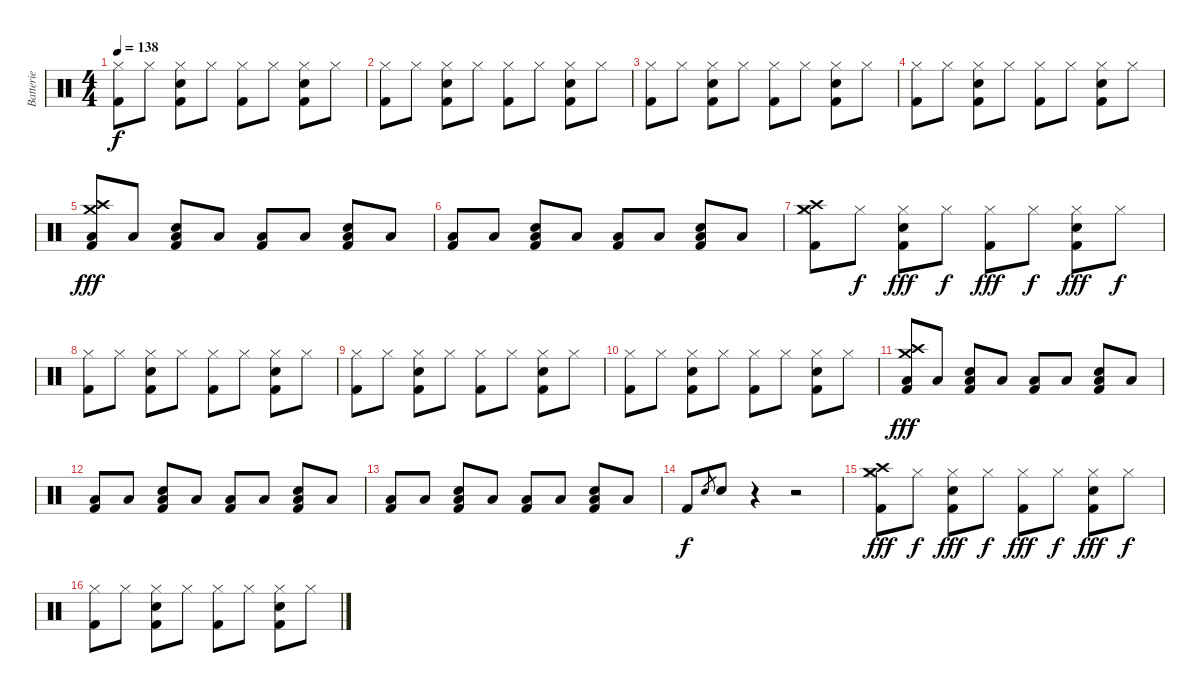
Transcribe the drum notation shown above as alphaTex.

\track ("Batterie" "Batterie") {instrument percussion}
\staff {score}
\articulation defaults
\ts (4 4)
\tempo 138
\clef neutral
\ks c
("Hi-Hat (closed)" "Kick (hit) 2").8{dy f} "Hi-Hat (closed)".8 ("Hi-Hat (closed)" "Electric Snare (hit)" "Kick (hit) 2").8 "Hi-Hat (closed)".8 ("Hi-Hat (closed)" "Kick (hit) 2").8 "Hi-Hat (closed)".8 ("Hi-Hat (closed)" "Electric Snare (hit)" "Kick (hit) 2").8 "Hi-Hat (closed)".8 |
("Hi-Hat (closed)" "Kick (hit) 2").8 "Hi-Hat (closed)".8 ("Hi-Hat (closed)" "Electric Snare (hit)" "Kick (hit) 2").8 "Hi-Hat (closed)".8 ("Hi-Hat (closed)" "Kick (hit) 2").8 "Hi-Hat (closed)".8 ("Hi-Hat (closed)" "Electric Snare (hit)" "Kick (hit) 2").8 "Hi-Hat (closed)".8 |
("Hi-Hat (closed)" "Kick (hit) 2").8 "Hi-Hat (closed)".8 ("Hi-Hat (closed)" "Electric Snare (hit)" "Kick (hit) 2").8 "Hi-Hat (closed)".8 ("Hi-Hat (closed)" "Kick (hit) 2").8 "Hi-Hat (closed)".8 ("Hi-Hat (closed)" "Electric Snare (hit)" "Kick (hit) 2").8 "Hi-Hat (closed)".8 |
("Hi-Hat (closed)" "Kick (hit) 2").8 "Hi-Hat (closed)".8 ("Hi-Hat (closed)" "Electric Snare (hit)" "Kick (hit) 2").8 "Hi-Hat (closed)".8 ("Hi-Hat (closed)" "Kick (hit) 2").8 "Hi-Hat (closed)".8 ("Hi-Hat (closed)" "Electric Snare (hit)" "Kick (hit) 2").8 "Hi-Hat (closed)".8 |
("Crash high (hit)" "Crash medium (hit)" "Low Floor Tom (hit)" "Kick (hit) 2").8{dy fff} "Low Floor Tom (hit)".8 ("Low Floor Tom (hit)" "Electric Snare (hit)" "Kick (hit) 2").8 "Low Floor Tom (hit)".8 ("Low Floor Tom (hit)" "Kick (hit) 2").8 "Low Floor Tom (hit)".8 ("Low Floor Tom (hit)" "Electric Snare (hit)" "Kick (hit) 2").8 "Low Floor Tom (hit)".8 |
("Low Floor Tom (hit)" "Kick (hit) 2").8 "Low Floor Tom (hit)".8 ("Low Floor Tom (hit)" "Electric Snare (hit)" "Kick (hit) 2").8 "Low Floor Tom (hit)".8 ("Low Floor Tom (hit)" "Kick (hit) 2").8 "Low Floor Tom (hit)".8 ("Low Floor Tom (hit)" "Electric Snare (hit)" "Kick (hit) 2").8 "Low Floor Tom (hit)".8 |
("Crash high (hit)" "Crash medium (hit)" "Hi-Hat (closed)" "Kick (hit) 2").8 "Hi-Hat (closed)".8{dy f} ("Hi-Hat (closed)" "Electric Snare (hit)" "Kick (hit) 2").8{dy fff} "Hi-Hat (closed)".8{dy f} ("Hi-Hat (closed)" "Kick (hit) 2").8{dy fff} "Hi-Hat (closed)".8{dy f} ("Hi-Hat (closed)" "Electric Snare (hit)" "Kick (hit) 2").8{dy fff} "Hi-Hat (closed)".8{dy f} |
("Hi-Hat (closed)" "Kick (hit) 2").8 "Hi-Hat (closed)".8 ("Hi-Hat (closed)" "Electric Snare (hit)" "Kick (hit) 2").8 "Hi-Hat (closed)".8 ("Hi-Hat (closed)" "Kick (hit) 2").8 "Hi-Hat (closed)".8 ("Hi-Hat (closed)" "Electric Snare (hit)" "Kick (hit) 2").8 "Hi-Hat (closed)".8 |
("Hi-Hat (closed)" "Kick (hit) 2").8 "Hi-Hat (closed)".8 ("Hi-Hat (closed)" "Electric Snare (hit)" "Kick (hit) 2").8 "Hi-Hat (closed)".8 ("Hi-Hat (closed)" "Kick (hit) 2").8 "Hi-Hat (closed)".8 ("Hi-Hat (closed)" "Electric Snare (hit)" "Kick (hit) 2").8 "Hi-Hat (closed)".8 |
("Hi-Hat (closed)" "Kick (hit) 2").8 "Hi-Hat (closed)".8 ("Hi-Hat (closed)" "Electric Snare (hit)" "Kick (hit) 2").8 "Hi-Hat (closed)".8 ("Hi-Hat (closed)" "Kick (hit) 2").8 "Hi-Hat (closed)".8 ("Hi-Hat (closed)" "Electric Snare (hit)" "Kick (hit) 2").8 "Hi-Hat (closed)".8 |
("Crash high (hit)" "Crash medium (hit)" "Low Floor Tom (hit)" "Kick (hit) 2").8{dy fff} "Low Floor Tom (hit)".8 ("Low Floor Tom (hit)" "Electric Snare (hit)" "Kick (hit) 2").8 "Low Floor Tom (hit)".8 ("Low Floor Tom (hit)" "Kick (hit) 2").8 "Low Floor Tom (hit)".8 ("Low Floor Tom (hit)" "Electric Snare (hit)" "Kick (hit) 2").8 "Low Floor Tom (hit)".8 |
("Low Floor Tom (hit)" "Kick (hit) 2").8 "Low Floor Tom (hit)".8 ("Low Floor Tom (hit)" "Electric Snare (hit)" "Kick (hit) 2").8 "Low Floor Tom (hit)".8 ("Low Floor Tom (hit)" "Kick (hit) 2").8 "Low Floor Tom (hit)".8 ("Low Floor Tom (hit)" "Electric Snare (hit)" "Kick (hit) 2").8 "Low Floor Tom (hit)".8 |
("Low Floor Tom (hit)" "Kick (hit) 2").8 "Low Floor Tom (hit)".8 ("Low Floor Tom (hit)" "Electric Snare (hit)" "Kick (hit) 2").8 "Low Floor Tom (hit)".8 ("Low Floor Tom (hit)" "Kick (hit) 2").8 "Low Floor Tom (hit)".8 ("Low Floor Tom (hit)" "Electric Snare (hit)" "Kick (hit) 2").8 "Low Floor Tom (hit)".8 |
"Kick (hit) 2".8{dy f} "Electric Snare (hit)".8{gr} "Electric Snare (hit)".8 r.4 r.2 |
("Crash high (hit)" "Crash medium (hit)" "Hi-Hat (closed)" "Kick (hit) 2").8{dy fff} "Hi-Hat (closed)".8{dy f} ("Hi-Hat (closed)" "Electric Snare (hit)" "Kick (hit) 2").8{dy fff} "Hi-Hat (closed)".8{dy f} ("Hi-Hat (closed)" "Kick (hit) 2").8{dy fff} "Hi-Hat (closed)".8{dy f} ("Hi-Hat (closed)" "Electric Snare (hit)" "Kick (hit) 2").8{dy fff} "Hi-Hat (closed)".8{dy f} |
("Hi-Hat (closed)" "Kick (hit) 2").8 "Hi-Hat (closed)".8 ("Hi-Hat (closed)" "Electric Snare (hit)" "Kick (hit) 2").8 "Hi-Hat (closed)".8 ("Hi-Hat (closed)" "Kick (hit) 2").8 "Hi-Hat (closed)".8 ("Hi-Hat (closed)" "Electric Snare (hit)" "Kick (hit) 2").8 "Hi-Hat (closed)".8
